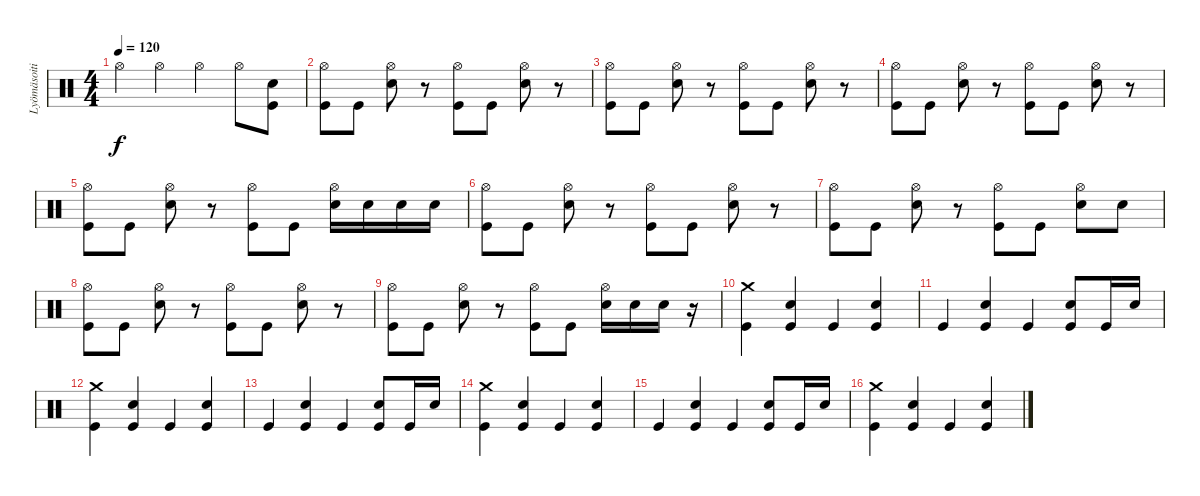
\track ("Lyömäsoitin" "Lyömäsoiti") {instrument percussion}
\staff {score}
\articulation defaults
\ts (4 4)
\tempo 120
\clef neutral
\ks c "Hi-Hat (open)".4{dy f} "Hi-Hat (open)".4 "Hi-Hat (open)".4 "Hi-Hat (open)".8
("Kick (hit)" "Electric Snare (hit)").8 |
("Hi-Hat (open)" "Kick (hit)").8 "Kick (hit)".8 ("Hi-Hat (open)" "Electric Snare (hit)").8 r.8 ("Hi-Hat (open)" "Kick (hit)").8 "Kick (hit)".8 ("Hi-Hat (open)" "Electric Snare (hit)").8 r.8 |
("Hi-Hat (open)" "Kick (hit)").8 "Kick (hit)".8 ("Hi-Hat (open)" "Electric Snare (hit)").8 r.8 ("Hi-Hat (open)" "Kick (hit)").8 "Kick (hit)".8 ("Hi-Hat (open)" "Electric Snare (hit)").8 r.8 |
("Hi-Hat (open)" "Kick (hit)").8 "Kick (hit)".8 ("Hi-Hat (open)" "Electric Snare (hit)").8 r.8 ("Hi-Hat (open)" "Kick (hit)").8 "Kick (hit)".8 ("Hi-Hat (open)" "Electric Snare (hit)").8 r.8 |
("Hi-Hat (open)" "Kick (hit)").8 "Kick (hit)".8 ("Hi-Hat (open)" "Electric Snare (hit)").8 r.8 ("Hi-Hat (open)" "Kick (hit)").8 "Kick (hit)".8 ("Hi-Hat (open)" "Electric Snare (hit)").16 "Electric Snare (hit)".16 "Electric Snare (hit)".16 "Electric Snare (hit)".16 |
("Hi-Hat (open)" "Kick (hit)").8 "Kick (hit)".8 ("Hi-Hat (open)" "Electric Snare (hit)").8 r.8 ("Hi-Hat (open)" "Kick (hit)").8 "Kick (hit)".8 ("Hi-Hat (open)" "Electric Snare (hit)").8 r.8 |
("Hi-Hat (open)" "Kick (hit)").8 "Kick (hit)".8 ("Hi-Hat (open)" "Electric Snare (hit)").8 r.8 ("Hi-Hat (open)" "Kick (hit)").8 "Kick (hit)".8 ("Hi-Hat (open)" "Electric Snare (hit)").8 "Electric Snare (hit)".8 |
("Hi-Hat (open)" "Kick (hit)").8 "Kick (hit)".8 ("Hi-Hat (open)" "Electric Snare (hit)").8 r.8 ("Hi-Hat (open)" "Kick (hit)").8 "Kick (hit)".8 ("Hi-Hat (open)" "Electric Snare (hit)").8 r.8 |
("Hi-Hat (open)" "Kick (hit)").8 "Kick (hit)".8 ("Hi-Hat (open)" "Electric Snare (hit)").8 r.8 ("Hi-Hat (open)" "Kick (hit)").8 "Kick (hit)".8 ("Hi-Hat (open)" "Electric Snare (hit)").16 "Electric Snare (hit)".16 "Electric Snare (hit)".16 r.16 |
("Kick (hit)" "Crash medium (hit)").4 ("Kick (hit)" "Electric Snare (hit)").4 "Kick (hit)".4 ("Kick (hit)" "Electric Snare (hit)").4 |
"Kick (hit)".4 ("Kick (hit)" "Electric Snare (hit)").4 "Kick (hit)".4 ("Kick (hit)" "Electric Snare (hit)").8 "Kick (hit)".16 "Electric Snare (hit)".16 |
("Kick (hit)" "Crash medium (hit)").4 ("Kick (hit)" "Electric Snare (hit)").4 "Kick (hit)".4 ("Kick (hit)" "Electric Snare (hit)").4 |
"Kick (hit)".4 ("Kick (hit)" "Electric Snare (hit)").4 "Kick (hit)".4 ("Kick (hit)" "Electric Snare (hit)").8 "Kick (hit)".16 "Electric Snare (hit)".16 |
("Kick (hit)" "Crash medium (hit)").4 ("Kick (hit)" "Electric Snare (hit)").4 "Kick (hit)".4 ("Kick (hit)" "Electric Snare (hit)").4 |
"Kick (hit)".4 ("Kick (hit)" "Electric Snare (hit)").4 "Kick (hit)".4 ("Kick (hit)" "Electric Snare (hit)").8 "Kick (hit)".16 "Electric Snare (hit)".16 |
("Kick (hit)" "Crash medium (hit)").4 ("Kick (hit)" "Electric Snare (hit)").4 "Kick (hit)".4 ("Kick (hit)" "Electric Snare (hit)").4
